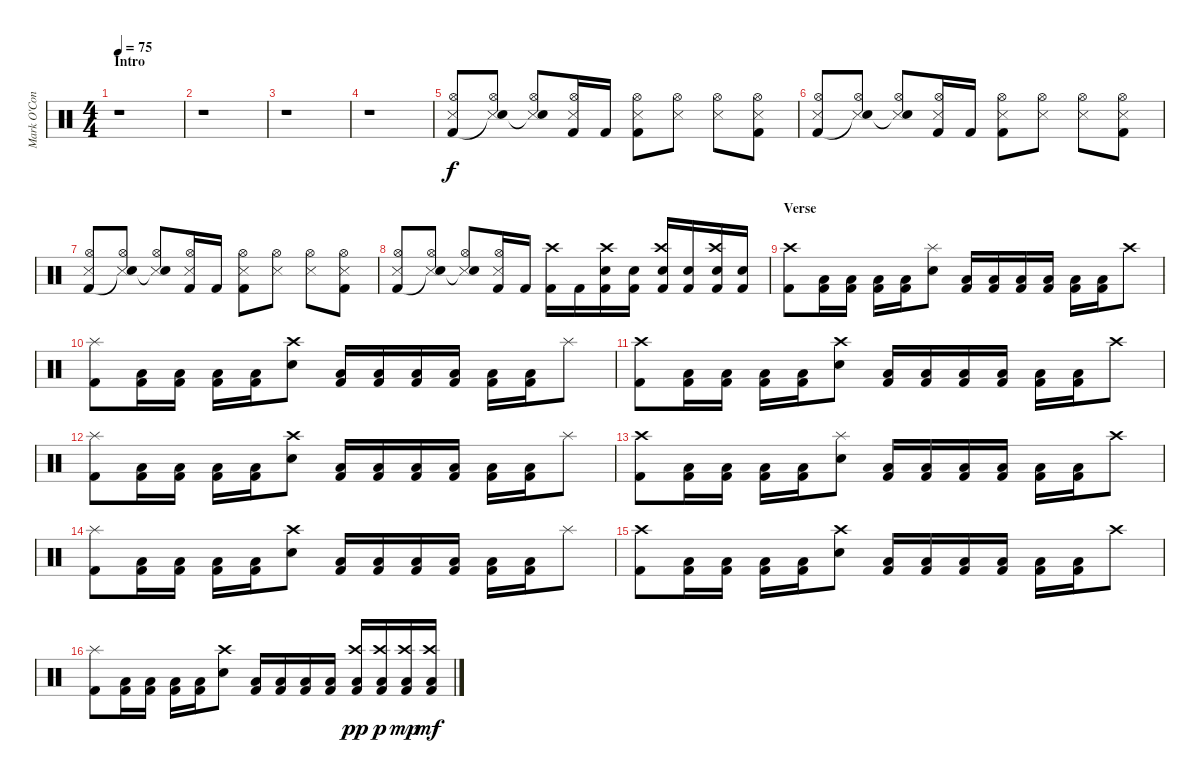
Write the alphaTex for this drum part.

\track ("Mark O'Connell (Drums)" "Mark O'Con") {instrument percussion}
\staff {score}
\articulation defaults
\ts (4 4)
\section ("" "Intro")
\tempo 75
\clef neutral
\ks c
r.1{dy f} |
r.1 |
r.1 |
r.1 |
("Snare (side stick) 3" "Hi-Hat (open)" "Kick (hit) 2").8 ("Snare (side stick) 3" "Hi-Hat (open)" "Snare (hit)"{t}).8 ("Snare (side stick) 3" "Hi-Hat (open)" "Snare (hit)"{t}).8 ("Snare (side stick) 3" "Hi-Hat (open)" "Kick (hit) 2").16 "Kick (hit) 2".16 ("Snare (side stick) 3" "Hi-Hat (open)" "Kick (hit) 2").8 ("Snare (side stick) 3" "Hi-Hat (open)").8 ("Snare (side stick) 3" "Hi-Hat (open)").8 ("Snare (side stick) 3" "Hi-Hat (open)" "Kick (hit) 2").8 |
("Snare (side stick) 3" "Hi-Hat (open)" "Kick (hit) 2").8 ("Snare (side stick) 3" "Hi-Hat (open)" "Snare (hit)"{t}).8 ("Snare (side stick) 3" "Hi-Hat (open)" "Snare (hit)"{t}).8 ("Snare (side stick) 3" "Hi-Hat (open)" "Kick (hit) 2").16 "Kick (hit) 2".16 ("Snare (side stick) 3" "Hi-Hat (open)" "Kick (hit) 2").8 ("Snare (side stick) 3" "Hi-Hat (open)").8 ("Snare (side stick) 3" "Hi-Hat (open)").8 ("Snare (side stick) 3" "Hi-Hat (open)" "Kick (hit) 2").8 |
("Snare (side stick) 3" "Hi-Hat (open)" "Kick (hit) 2").8 ("Snare (side stick) 3" "Hi-Hat (open)" "Snare (hit)"{t}).8 ("Snare (side stick) 3" "Hi-Hat (open)" "Snare (hit)"{t}).8 ("Snare (side stick) 3" "Hi-Hat (open)" "Kick (hit) 2").16 "Kick (hit) 2".16 ("Snare (side stick) 3" "Hi-Hat (open)" "Kick (hit) 2").8 ("Snare (side stick) 3" "Hi-Hat (open)").8 ("Snare (side stick) 3" "Hi-Hat (open)").8 ("Snare (side stick) 3" "Hi-Hat (open)" "Kick (hit) 2").8 |
("Snare (side stick) 3" "Hi-Hat (open)" "Kick (hit) 2").8 ("Snare (side stick) 3" "Hi-Hat (open)" "Snare (hit)"{t}).8 ("Snare (side stick) 3" "Hi-Hat (open)" "Snare (hit)"{t}).8 ("Snare (side stick) 3" "Hi-Hat (open)" "Kick (hit) 2").16 "Kick (hit) 2".16 ("Crash high (hit)" "Kick (hit) 2").16 "Kick (hit) 2".16 ("Crash high (hit)" "Electric Snare (hit)" "Kick (hit) 2").16 ("Electric Snare (hit)" "Kick (hit) 2").16 ("Crash high (hit)" "Electric Snare (hit)" "Kick (hit) 2").16 ("Electric Snare (hit)" "Kick (hit) 2").16 ("Crash high (hit)" "Electric Snare (hit)" "Kick (hit) 2").16 ("Electric Snare (hit)" "Kick (hit) 2").16 |
\section ("" "Verse")
("Crash high (hit)" "Kick (hit) 2").8 ("Low Tom (hit)" "Kick (hit) 2").16 ("Low Tom (hit)" "Kick (hit) 2").16 ("Low Tom (hit)" "Kick (hit) 2").16 ("Low Tom (hit)" "Kick (hit) 2").16 ("Splash (hit)" "Electric Snare (hit)").8 ("Low Tom (hit)" "Kick (hit) 2").16 ("Low Tom (hit)" "Kick (hit) 2").16 ("Low Tom (hit)" "Kick (hit) 2").16 ("Low Tom (hit)" "Kick (hit) 2").16 ("Low Tom (hit)" "Kick (hit) 2").16 ("Low Tom (hit)" "Kick (hit) 2").16 "Crash high (hit)".8 |
("Splash (hit)" "Kick (hit) 2").8 ("Low Tom (hit)" "Kick (hit) 2").16 ("Low Tom (hit)" "Kick (hit) 2").16 ("Low Tom (hit)" "Kick (hit) 2").16 ("Low Tom (hit)" "Kick (hit) 2").16 ("Crash high (hit)" "Electric Snare (hit)").8 ("Low Tom (hit)" "Kick (hit) 2").16 ("Low Tom (hit)" "Kick (hit) 2").16 ("Low Tom (hit)" "Kick (hit) 2").16 ("Low Tom (hit)" "Kick (hit) 2").16 ("Low Tom (hit)" "Kick (hit) 2").16 ("Low Tom (hit)" "Kick (hit) 2").16 "Splash (hit)".8 |
("Crash high (hit)" "Kick (hit) 2").8 ("Low Tom (hit)" "Kick (hit) 2").16 ("Low Tom (hit)" "Kick (hit) 2").16 ("Low Tom (hit)" "Kick (hit) 2").16 ("Low Tom (hit)" "Kick (hit) 2").16 ("Crash high (hit)" "Electric Snare (hit)").8 ("Low Tom (hit)" "Kick (hit) 2").16 ("Low Tom (hit)" "Kick (hit) 2").16 ("Low Tom (hit)" "Kick (hit) 2").16 ("Low Tom (hit)" "Kick (hit) 2").16 ("Low Tom (hit)" "Kick (hit) 2").16 ("Low Tom (hit)" "Kick (hit) 2").16 "Crash high (hit)".8 |
("Splash (hit)" "Kick (hit) 2").8 ("Low Tom (hit)" "Kick (hit) 2").16 ("Low Tom (hit)" "Kick (hit) 2").16 ("Low Tom (hit)" "Kick (hit) 2").16 ("Low Tom (hit)" "Kick (hit) 2").16 ("Crash high (hit)" "Electric Snare (hit)").8 ("Low Tom (hit)" "Kick (hit) 2").16 ("Low Tom (hit)" "Kick (hit) 2").16 ("Low Tom (hit)" "Kick (hit) 2").16 ("Low Tom (hit)" "Kick (hit) 2").16 ("Low Tom (hit)" "Kick (hit) 2").16 ("Low Tom (hit)" "Kick (hit) 2").16 "Splash (hit)".8 |
("Crash high (hit)" "Kick (hit) 2").8 ("Low Tom (hit)" "Kick (hit) 2").16 ("Low Tom (hit)" "Kick (hit) 2").16 ("Low Tom (hit)" "Kick (hit) 2").16 ("Low Tom (hit)" "Kick (hit) 2").16 ("Splash (hit)" "Electric Snare (hit)").8 ("Low Tom (hit)" "Kick (hit) 2").16 ("Low Tom (hit)" "Kick (hit) 2").16 ("Low Tom (hit)" "Kick (hit) 2").16 ("Low Tom (hit)" "Kick (hit) 2").16 ("Low Tom (hit)" "Kick (hit) 2").16 ("Low Tom (hit)" "Kick (hit) 2").16 "Crash high (hit)".8 |
("Splash (hit)" "Kick (hit) 2").8 ("Low Tom (hit)" "Kick (hit) 2").16 ("Low Tom (hit)" "Kick (hit) 2").16 ("Low Tom (hit)" "Kick (hit) 2").16 ("Low Tom (hit)" "Kick (hit) 2").16 ("Crash high (hit)" "Electric Snare (hit)").8 ("Low Tom (hit)" "Kick (hit) 2").16 ("Low Tom (hit)" "Kick (hit) 2").16 ("Low Tom (hit)" "Kick (hit) 2").16 ("Low Tom (hit)" "Kick (hit) 2").16 ("Low Tom (hit)" "Kick (hit) 2").16 ("Low Tom (hit)" "Kick (hit) 2").16 "Splash (hit)".8 |
("Crash high (hit)" "Kick (hit) 2").8 ("Low Tom (hit)" "Kick (hit) 2").16 ("Low Tom (hit)" "Kick (hit) 2").16 ("Low Tom (hit)" "Kick (hit) 2").16 ("Low Tom (hit)" "Kick (hit) 2").16 ("Crash high (hit)" "Electric Snare (hit)").8 ("Low Tom (hit)" "Kick (hit) 2").16 ("Low Tom (hit)" "Kick (hit) 2").16 ("Low Tom (hit)" "Kick (hit) 2").16 ("Low Tom (hit)" "Kick (hit) 2").16 ("Low Tom (hit)" "Kick (hit) 2").16 ("Low Tom (hit)" "Kick (hit) 2").16 "Crash high (hit)".8 |
("Splash (hit)" "Kick (hit) 2").8 ("Low Tom (hit)" "Kick (hit) 2").16 ("Low Tom (hit)" "Kick (hit) 2").16 ("Low Tom (hit)" "Kick (hit) 2").16 ("Low Tom (hit)" "Kick (hit) 2").16 ("Crash high (hit)" "Electric Snare (hit)").8 ("Low Tom (hit)" "Kick (hit) 2").16 ("Low Tom (hit)" "Kick (hit) 2").16 ("Low Tom (hit)" "Kick (hit) 2").16 ("Low Tom (hit)" "Kick (hit) 2").16 ("Crash high (hit)" "Low Tom (hit)" "Kick (hit) 2").16{dy pp} ("Crash high (hit)" "Low Tom (hit)" "Kick (hit) 2").16{dy p} ("Crash high (hit)" "Low Tom (hit)" "Kick (hit) 2").16{dy mp} ("Crash high (hit)" "Low Tom (hit)" "Kick (hit) 2").16{dy mf}
